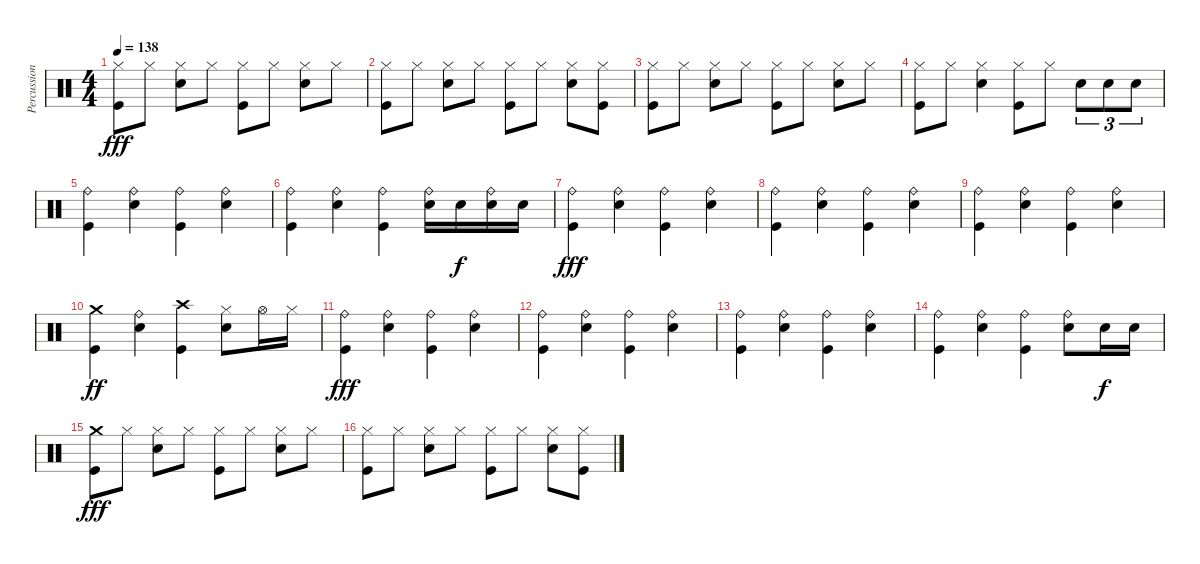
\track ("Percussions" "Percussion") {instrument percussion}
\staff {score}
\articulation defaults
\ts (4 4)
\tempo 138
\clef neutral
\ks c
("Hi-Hat (closed)" "Kick (hit)").8{dy fff} "Hi-Hat (closed)".8 ("Hi-Hat (closed)" "Snare (hit) 2").8 "Hi-Hat (closed)".8 ("Hi-Hat (closed)" "Kick (hit)").8 "Hi-Hat (closed)".8 ("Hi-Hat (closed)" "Snare (hit) 2").8 "Hi-Hat (closed)".8 |
("Hi-Hat (closed)" "Kick (hit)").8 "Hi-Hat (closed)".8 ("Hi-Hat (closed)" "Snare (hit) 2").8 "Hi-Hat (closed)".8 ("Hi-Hat (closed)" "Kick (hit)").8 "Hi-Hat (closed)".8 ("Hi-Hat (closed)" "Snare (hit) 2").8 ("Hi-Hat (closed)" "Kick (hit)").8 |
("Hi-Hat (closed)" "Kick (hit)").8 "Hi-Hat (closed)".8 ("Hi-Hat (closed)" "Snare (hit) 2").8 "Hi-Hat (closed)".8 ("Hi-Hat (closed)" "Kick (hit)").8 "Hi-Hat (closed)".8 ("Hi-Hat (closed)" "Snare (hit) 2").8 "Hi-Hat (closed)".8 |
("Hi-Hat (closed)" "Kick (hit)").8 "Hi-Hat (closed)".8 ("Hi-Hat (closed)" "Snare (hit) 2").4 ("Hi-Hat (closed)" "Kick (hit)").8 "Hi-Hat (closed)".8 "Snare (hit) 2".8{tu (3 2)} "Snare (hit) 2".8{tu (3 2)} "Snare (hit) 2".8{tu (3 2)} |
("Ride (bell)" "Kick (hit)").4 ("Ride (bell)" "Snare (hit) 2").4 ("Ride (bell)" "Kick (hit)").4 ("Ride (bell)" "Snare (hit) 2").4 |
("Ride (bell)" "Kick (hit)").4 ("Ride (bell)" "Snare (hit) 2").4 ("Ride (bell)" "Kick (hit)").4 ("Ride (bell)" "Snare (hit) 2").16 "Snare (hit) 2".16{dy f} ("Ride (bell)" "Snare (hit) 2").16 "Snare (hit) 2".16 |
("Ride (bell)" "Kick (hit)").4{dy fff} ("Ride (bell)" "Snare (hit) 2").4 ("Ride (bell)" "Kick (hit)").4 ("Ride (bell)" "Snare (hit) 2").4 |
("Ride (bell)" "Kick (hit)").4 ("Ride (bell)" "Snare (hit) 2").4 ("Ride (bell)" "Kick (hit)").4 ("Ride (bell)" "Snare (hit) 2").4 |
("Ride (bell)" "Kick (hit)").4 ("Ride (bell)" "Snare (hit) 2").4 ("Ride (bell)" "Kick (hit)").4 ("Ride (bell)" "Snare (hit) 2").4 |
("Crash medium (hit)" "Kick (hit)").4{dy ff} ("Ride (bell)" "Snare (hit) 2").4 ("Crash high (hit)" "Kick (hit)").4 ("Hi-Hat (closed)" "Snare (hit) 2").8 "Hi-Hat (open)".16 "Hi-Hat (closed)".16 |
("Ride (bell)" "Kick (hit)").4{dy fff} ("Ride (bell)" "Snare (hit) 2").4 ("Ride (bell)" "Kick (hit)").4 ("Ride (bell)" "Snare (hit) 2").4 |
("Ride (bell)" "Kick (hit)").4 ("Ride (bell)" "Snare (hit) 2").4 ("Ride (bell)" "Kick (hit)").4 ("Ride (bell)" "Snare (hit) 2").4 |
("Ride (bell)" "Kick (hit)").4 ("Ride (bell)" "Snare (hit) 2").4 ("Ride (bell)" "Kick (hit)").4 ("Ride (bell)" "Snare (hit) 2").4 |
("Ride (bell)" "Kick (hit)").4 ("Ride (bell)" "Snare (hit) 2").4 ("Ride (bell)" "Kick (hit)").4 ("Ride (bell)" "Snare (hit) 2").8 "Snare (hit) 2".16{dy f} "Snare (hit) 2".16 |
("Crash medium (hit)" "Kick (hit)").8{dy fff} "Hi-Hat (closed)".8 ("Hi-Hat (closed)" "Snare (hit) 2").8 "Hi-Hat (closed)".8 ("Hi-Hat (closed)" "Kick (hit)").8 "Hi-Hat (closed)".8 ("Hi-Hat (closed)" "Snare (hit) 2").8 "Hi-Hat (closed)".8 |
("Hi-Hat (closed)" "Kick (hit)").8 "Hi-Hat (closed)".8 ("Hi-Hat (closed)" "Snare (hit) 2").8 "Hi-Hat (closed)".8 ("Hi-Hat (closed)" "Kick (hit)").8 "Hi-Hat (closed)".8 ("Hi-Hat (closed)" "Snare (hit) 2").8 ("Hi-Hat (closed)" "Kick (hit)").8
